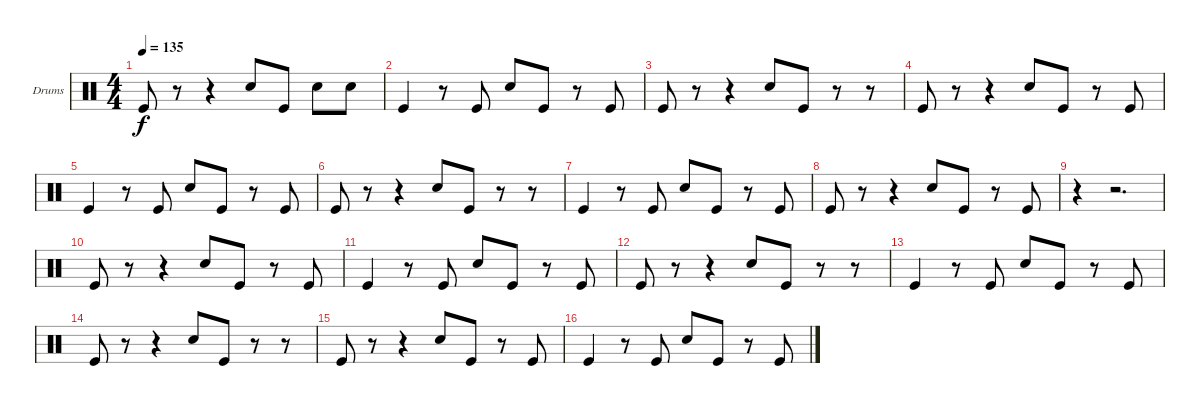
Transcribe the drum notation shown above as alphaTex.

\bracketExtendMode groupsimilarinstruments
\firstSystemTrackNameOrientation horizontal
\otherSystemsTrackNameOrientation horizontal
\track ("Drumkit" "Drums") {instrument percussion}
\staff {score}
\articulation defaults
\ts (4 4)
\tempo 135
\clef neutral
\ks c "Kick (hit)".8{dy f}
r.8 r.4 "Snare (hit) 2".8 "Kick (hit)".8 "Snare (hit) 2".8 "Snare (hit) 2".8 |
"Kick (hit)".4 r.8 "Kick (hit)".8 "Snare (hit) 2".8 "Kick (hit)".8 r.8 "Kick (hit)".8 |
"Kick (hit)".8 r.8 r.4 "Snare (hit) 2".8 "Kick (hit)".8 r.8 r.8 |
"Kick (hit)".8 r.8 r.4 "Snare (hit) 2".8 "Kick (hit)".8 r.8 "Kick (hit)".8 |
"Kick (hit)".4 r.8 "Kick (hit)".8 "Snare (hit) 2".8 "Kick (hit)".8 r.8 "Kick (hit)".8 |
"Kick (hit)".8 r.8 r.4 "Snare (hit) 2".8 "Kick (hit)".8 r.8 r.8 |
"Kick (hit)".4 r.8 "Kick (hit)".8 "Snare (hit) 2".8 "Kick (hit)".8 r.8 "Kick (hit)".8 |
"Kick (hit)".8 r.8 r.4 "Snare (hit) 2".8 "Kick (hit)".8 r.8 "Kick (hit)".8 |
r.4 r.2{d} |
"Kick (hit)".8 r.8 r.4 "Snare (hit) 2".8 "Kick (hit)".8 r.8 "Kick (hit)".8 |
"Kick (hit)".4 r.8 "Kick (hit)".8 "Snare (hit) 2".8 "Kick (hit)".8 r.8 "Kick (hit)".8 |
"Kick (hit)".8 r.8 r.4 "Snare (hit) 2".8 "Kick (hit)".8 r.8 r.8 |
"Kick (hit)".4 r.8 "Kick (hit)".8 "Snare (hit) 2".8 "Kick (hit)".8 r.8 "Kick (hit)".8 |
"Kick (hit)".8 r.8 r.4 "Snare (hit) 2".8 "Kick (hit)".8 r.8 r.8 |
"Kick (hit)".8 r.8 r.4 "Snare (hit) 2".8 "Kick (hit)".8 r.8 "Kick (hit)".8 |
"Kick (hit)".4 r.8 "Kick (hit)".8 "Snare (hit) 2".8 "Kick (hit)".8 r.8 "Kick (hit)".8
